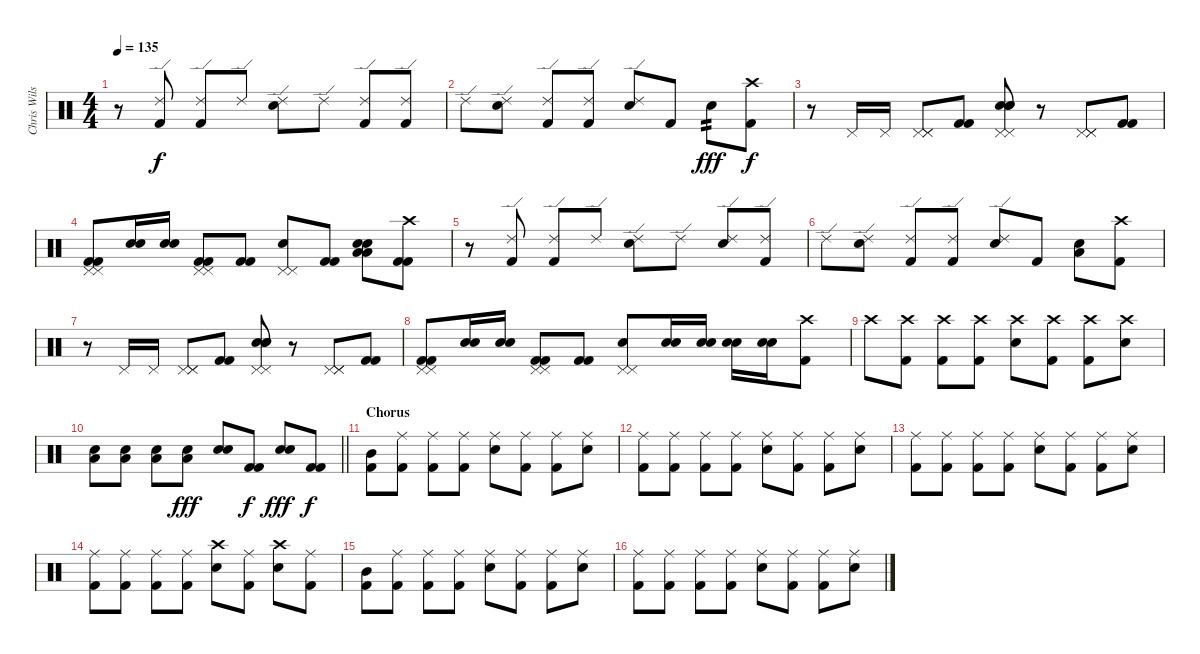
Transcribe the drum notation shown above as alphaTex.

\track ("Chris Wilson - Drums" "Chris Wils") {instrument percussion}
\staff {score}
\articulation defaults
\ts (4 4)
\tempo 135
\clef neutral
\ks c
r.8{dy f} ("Ride (edge) 2" "Kick (hit) 2").8 ("Ride (edge) 2" "Kick (hit) 2").8 "Ride (edge) 2".8 ("Ride (edge) 2" "Snare (hit) 2").8 "Ride (edge) 2".8 ("Ride (edge) 2" "Kick (hit) 2").8 ("Ride (edge) 2" "Kick (hit) 2").8 |
"Ride (edge) 2".8 ("Ride (edge) 2" "Snare (hit) 2").8 ("Ride (edge) 2" "Kick (hit) 2").8 ("Ride (edge) 2" "Kick (hit) 2").8 ("Ride (edge) 2" "Snare (hit) 2").8 "Kick (hit) 2".8 "Snare (hit) 2".8{tp 2 dy fff} ("Crash high (hit)" "Kick (hit) 2").8{dy f} |
r.8 "Pedal Hi-Hat (hit)".16 "Pedal Hi-Hat (hit)".16 ("Pedal Hi-Hat (hit)" "Pedal Hi-Hat (hit)" "Pedal Hi-Hat (hit)").8 ("Kick (hit) 2" "Kick (hit) 2").8 ("Pedal Hi-Hat (hit)" "Pedal Hi-Hat (hit)" "Snare (hit) 2" "Snare (hit) 2" "Snare (hit) 2").8 r.8 ("Pedal Hi-Hat (hit)" "Pedal Hi-Hat (hit)" "Pedal Hi-Hat (hit)").8 ("Kick (hit) 2" "Kick (hit) 2").8 |
("Pedal Hi-Hat (hit)" "Pedal Hi-Hat (hit)" "Kick (hit) 2" "Kick (hit) 2").8 ("Snare (hit) 2" "Snare (hit) 2").16 ("Snare (hit) 2" "Snare (hit) 2").16 ("Pedal Hi-Hat (hit)" "Pedal Hi-Hat (hit)" "Kick (hit) 2" "Kick (hit) 2").8 ("Kick (hit) 2" "Kick (hit) 2").8 ("Pedal Hi-Hat (hit)" "Pedal Hi-Hat (hit)" "Snare (hit) 2").8 ("Kick (hit) 2" "Kick (hit) 2").8 ("Snare (hit) 2" "Snare (hit) 2" "Low Floor Tom (hit)" "Low Floor Tom (hit)").8 ("Crash high (hit)" "Kick (hit) 2" "Kick (hit) 2").8 |
r.8 ("Ride (edge) 2" "Kick (hit) 2").8 ("Ride (edge) 2" "Kick (hit) 2").8 "Ride (edge) 2".8 ("Ride (edge) 2" "Snare (hit) 2").8 "Ride (edge) 2".8 ("Ride (edge) 2" "Snare (hit) 2").8 ("Ride (edge) 2" "Kick (hit) 2").8 |
"Ride (edge) 2".8 ("Ride (edge) 2" "Snare (hit) 2").8 ("Ride (edge) 2" "Kick (hit) 2").8 ("Ride (edge) 2" "Kick (hit) 2").8 ("Ride (edge) 2" "Snare (hit) 2").8 "Kick (hit) 2".8 ("Snare (hit) 2" "Low Floor Tom (hit)").8 ("Crash high (hit)" "Kick (hit) 2").8 |
r.8 "Pedal Hi-Hat (hit)".16 "Pedal Hi-Hat (hit)".16 ("Pedal Hi-Hat (hit)" "Pedal Hi-Hat (hit)" "Pedal Hi-Hat (hit)").8 ("Kick (hit) 2" "Kick (hit) 2").8 ("Pedal Hi-Hat (hit)" "Pedal Hi-Hat (hit)" "Snare (hit) 2" "Snare (hit) 2" "Snare (hit) 2").8 r.8 ("Pedal Hi-Hat (hit)" "Pedal Hi-Hat (hit)" "Pedal Hi-Hat (hit)").8 ("Kick (hit) 2" "Kick (hit) 2").8 |
("Pedal Hi-Hat (hit)" "Pedal Hi-Hat (hit)" "Kick (hit) 2" "Kick (hit) 2").8 ("Snare (hit) 2" "Snare (hit) 2").16 ("Snare (hit) 2" "Snare (hit) 2").16 ("Pedal Hi-Hat (hit)" "Pedal Hi-Hat (hit)" "Kick (hit) 2" "Kick (hit) 2").8 ("Kick (hit) 2" "Kick (hit) 2").8 ("Pedal Hi-Hat (hit)" "Pedal Hi-Hat (hit)" "Snare (hit) 2").8 ("Snare (hit) 2" "Snare (hit) 2").16 ("Snare (hit) 2" "Snare (hit) 2").16 ("Snare (hit) 2" "Snare (hit) 2").16 ("Snare (hit) 2" "Snare (hit) 2").16 ("Crash high (hit)" "Kick (hit) 2").8 |
"Crash high (hit)".8 ("Crash high (hit)" "Kick (hit) 2").8 ("Crash high (hit)" "Kick (hit) 2").8 ("Crash high (hit)" "Kick (hit) 2").8 ("Crash high (hit)" "Snare (hit) 2").8 ("Crash high (hit)" "Kick (hit) 2").8 ("Crash high (hit)" "Kick (hit) 2").8 ("Crash high (hit)" "Snare (hit) 2").8 |
\barLineRight lightlight
("Snare (hit) 2" "Low Floor Tom (hit)").8 ("Snare (hit) 2" "Low Floor Tom (hit)").8 ("Snare (hit) 2" "Low Floor Tom (hit)").8 ("Snare (hit) 2" "Low Floor Tom (hit)").8{dy fff} ("Snare (hit) 2" "Snare (hit) 2").8 ("Kick (hit) 2" "Kick (hit) 2").8{dy f} ("Snare (hit) 2" "Snare (hit) 2").8{dy fff} ("Kick (hit) 2" "Kick (hit) 2").8{dy f} |
\section ("" "Chorus")
("Mid Tom (hit)" "Kick (hit) 2").8 ("Ride (middle)" "Kick (hit) 2").8 ("Ride (middle)" "Kick (hit) 2").8 ("Ride (middle)" "Kick (hit) 2").8 ("Ride (middle)" "Snare (hit) 2").8 ("Ride (middle)" "Kick (hit) 2").8 ("Ride (middle)" "Kick (hit) 2").8 ("Ride (middle)" "Snare (hit) 2").8 |
("Ride (middle)" "Kick (hit) 2").8 ("Ride (middle)" "Kick (hit) 2").8 ("Ride (middle)" "Kick (hit) 2").8 ("Ride (middle)" "Kick (hit) 2").8 ("Ride (middle)" "Snare (hit) 2").8 ("Ride (middle)" "Kick (hit) 2").8 ("Ride (middle)" "Kick (hit) 2").8 ("Ride (middle)" "Snare (hit) 2").8 |
("Ride (middle)" "Kick (hit) 2").8 ("Ride (middle)" "Kick (hit) 2").8 ("Ride (middle)" "Kick (hit) 2").8 ("Ride (middle)" "Kick (hit) 2").8 ("Ride (middle)" "Snare (hit) 2").8 ("Ride (middle)" "Kick (hit) 2").8 ("Ride (middle)" "Kick (hit) 2").8 ("Ride (middle)" "Snare (hit) 2").8 |
("Ride (middle)" "Kick (hit) 2").8 ("Ride (middle)" "Kick (hit) 2").8 ("Ride (middle)" "Kick (hit) 2").8 ("Ride (middle)" "Kick (hit) 2").8 ("Crash high (hit)" "Snare (hit) 2").8 ("Ride (middle)" "Kick (hit) 2").8 ("Crash high (hit)" "Snare (hit) 2").8 ("Ride (middle)" "Kick (hit) 2").8 |
("Mid Tom (hit)" "Kick (hit) 2").8 ("Ride (middle)" "Kick (hit) 2").8 ("Ride (middle)" "Kick (hit) 2").8 ("Ride (middle)" "Kick (hit) 2").8 ("Ride (middle)" "Snare (hit) 2").8 ("Ride (middle)" "Kick (hit) 2").8 ("Ride (middle)" "Kick (hit) 2").8 ("Ride (middle)" "Snare (hit) 2").8 |
("Ride (middle)" "Kick (hit) 2").8 ("Ride (middle)" "Kick (hit) 2").8 ("Ride (middle)" "Kick (hit) 2").8 ("Ride (middle)" "Kick (hit) 2").8 ("Ride (middle)" "Snare (hit) 2").8 ("Ride (middle)" "Kick (hit) 2").8 ("Ride (middle)" "Kick (hit) 2").8 ("Ride (middle)" "Snare (hit) 2").8
